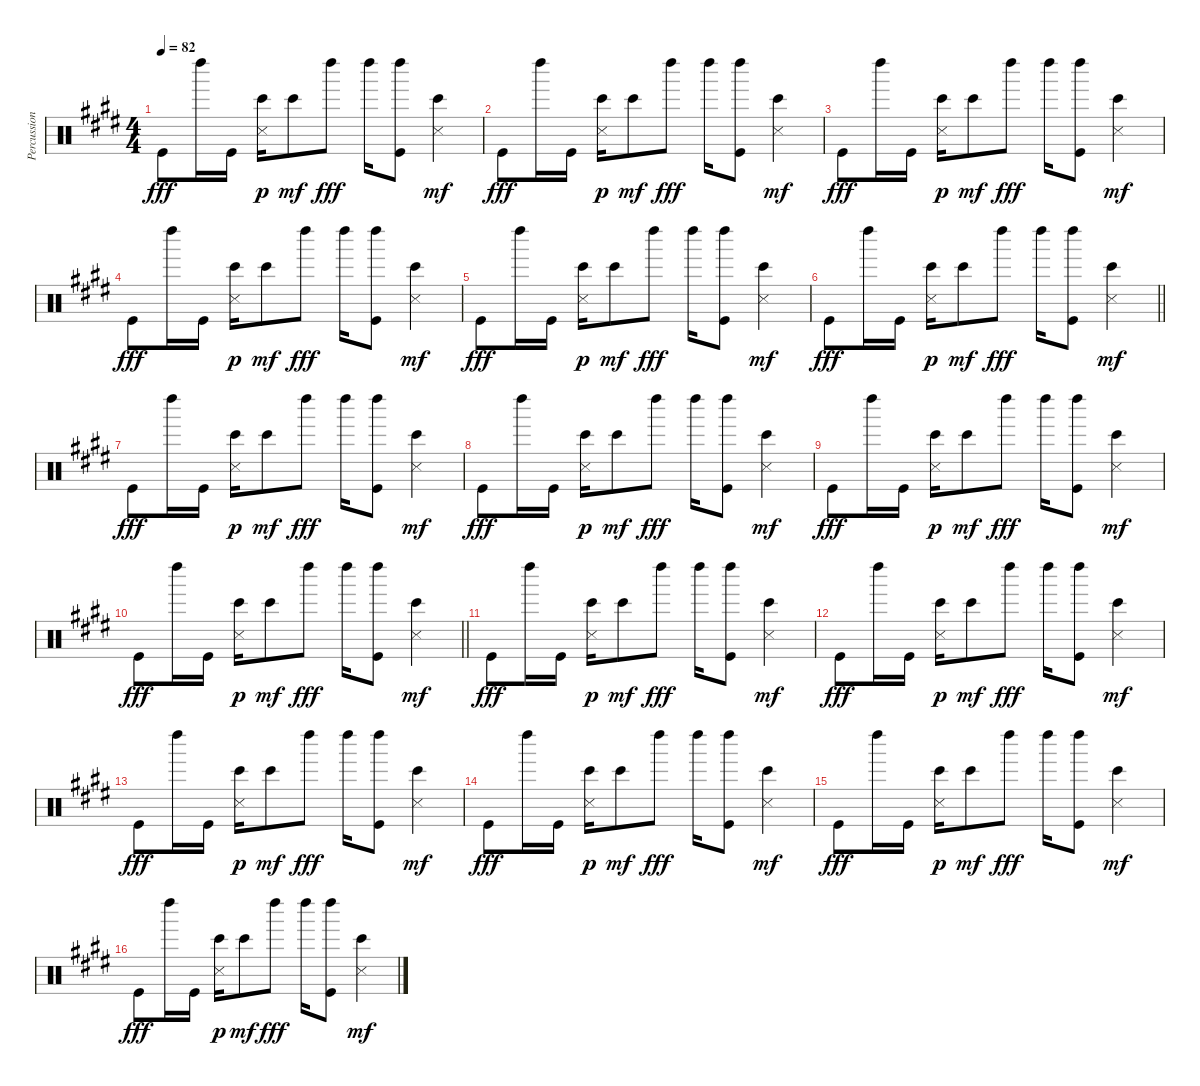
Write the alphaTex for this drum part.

\track ("Percussions" "Percussion") {instrument percussion}
\staff {score}
\articulation defaults
\ts (4 4)
\tempo 82
\clef neutral
\ks e "Kick (hit)".8{dy fff} "Left Maraca (hit)".16 "Kick (hit)".16
("Bongo High (hit)" "Metronome (hit)").16{dy p} "Bongo High (hit)".8{dy mf} "Left Maraca (hit)".8{dy fff} "Left Maraca (hit)".16 ("Left Maraca (hit)" "Kick (hit)").8 ("Bongo High (hit)" "Metronome (hit)").4{dy mf} |
"Kick (hit)".8{dy fff} "Left Maraca (hit)".16 "Kick (hit)".16 ("Bongo High (hit)" "Metronome (hit)").16{dy p} "Bongo High (hit)".8{dy mf} "Left Maraca (hit)".8{dy fff} "Left Maraca (hit)".16 ("Left Maraca (hit)" "Kick (hit)").8 ("Bongo High (hit)" "Metronome (hit)").4{dy mf} |
"Kick (hit)".8{dy fff} "Left Maraca (hit)".16 "Kick (hit)".16 ("Bongo High (hit)" "Metronome (hit)").16{dy p} "Bongo High (hit)".8{dy mf} "Left Maraca (hit)".8{dy fff} "Left Maraca (hit)".16 ("Left Maraca (hit)" "Kick (hit)").8 ("Bongo High (hit)" "Metronome (hit)").4{dy mf} |
"Kick (hit)".8{dy fff} "Left Maraca (hit)".16 "Kick (hit)".16 ("Bongo High (hit)" "Metronome (hit)").16{dy p} "Bongo High (hit)".8{dy mf} "Left Maraca (hit)".8{dy fff} "Left Maraca (hit)".16 ("Left Maraca (hit)" "Kick (hit)").8 ("Bongo High (hit)" "Metronome (hit)").4{dy mf} |
"Kick (hit)".8{dy fff} "Left Maraca (hit)".16 "Kick (hit)".16 ("Bongo High (hit)" "Metronome (hit)").16{dy p} "Bongo High (hit)".8{dy mf} "Left Maraca (hit)".8{dy fff} "Left Maraca (hit)".16 ("Left Maraca (hit)" "Kick (hit)").8 ("Bongo High (hit)" "Metronome (hit)").4{dy mf} |
\barLineRight lightlight "Kick (hit)".8{dy fff} "Left Maraca (hit)".16 "Kick (hit)".16
("Bongo High (hit)" "Metronome (hit)").16{dy p} "Bongo High (hit)".8{dy mf} "Left Maraca (hit)".8{dy fff} "Left Maraca (hit)".16 ("Left Maraca (hit)" "Kick (hit)").8 ("Bongo High (hit)" "Metronome (hit)").4{dy mf} |
"Kick (hit)".8{dy fff} "Left Maraca (hit)".16 "Kick (hit)".16 ("Bongo High (hit)" "Metronome (hit)").16{dy p} "Bongo High (hit)".8{dy mf} "Left Maraca (hit)".8{dy fff} "Left Maraca (hit)".16 ("Left Maraca (hit)" "Kick (hit)").8 ("Bongo High (hit)" "Metronome (hit)").4{dy mf} |
"Kick (hit)".8{dy fff} "Left Maraca (hit)".16 "Kick (hit)".16 ("Bongo High (hit)" "Metronome (hit)").16{dy p} "Bongo High (hit)".8{dy mf} "Left Maraca (hit)".8{dy fff} "Left Maraca (hit)".16 ("Left Maraca (hit)" "Kick (hit)").8 ("Bongo High (hit)" "Metronome (hit)").4{dy mf} |
"Kick (hit)".8{dy fff} "Left Maraca (hit)".16 "Kick (hit)".16 ("Bongo High (hit)" "Metronome (hit)").16{dy p} "Bongo High (hit)".8{dy mf} "Left Maraca (hit)".8{dy fff} "Left Maraca (hit)".16 ("Left Maraca (hit)" "Kick (hit)").8 ("Bongo High (hit)" "Metronome (hit)").4{dy mf} |
\barLineRight lightlight "Kick (hit)".8{dy fff} "Left Maraca (hit)".16 "Kick (hit)".16
("Bongo High (hit)" "Metronome (hit)").16{dy p} "Bongo High (hit)".8{dy mf} "Left Maraca (hit)".8{dy fff} "Left Maraca (hit)".16 ("Left Maraca (hit)" "Kick (hit)").8 ("Bongo High (hit)" "Metronome (hit)").4{dy mf} |
"Kick (hit)".8{dy fff} "Left Maraca (hit)".16 "Kick (hit)".16 ("Bongo High (hit)" "Metronome (hit)").16{dy p} "Bongo High (hit)".8{dy mf} "Left Maraca (hit)".8{dy fff} "Left Maraca (hit)".16 ("Left Maraca (hit)" "Kick (hit)").8 ("Bongo High (hit)" "Metronome (hit)").4{dy mf} |
"Kick (hit)".8{dy fff} "Left Maraca (hit)".16 "Kick (hit)".16 ("Bongo High (hit)" "Metronome (hit)").16{dy p} "Bongo High (hit)".8{dy mf} "Left Maraca (hit)".8{dy fff} "Left Maraca (hit)".16 ("Left Maraca (hit)" "Kick (hit)").8 ("Bongo High (hit)" "Metronome (hit)").4{dy mf} |
"Kick (hit)".8{dy fff} "Left Maraca (hit)".16 "Kick (hit)".16 ("Bongo High (hit)" "Metronome (hit)").16{dy p} "Bongo High (hit)".8{dy mf} "Left Maraca (hit)".8{dy fff} "Left Maraca (hit)".16 ("Left Maraca (hit)" "Kick (hit)").8 ("Bongo High (hit)" "Metronome (hit)").4{dy mf} |
"Kick (hit)".8{dy fff} "Left Maraca (hit)".16 "Kick (hit)".16 ("Bongo High (hit)" "Metronome (hit)").16{dy p} "Bongo High (hit)".8{dy mf} "Left Maraca (hit)".8{dy fff} "Left Maraca (hit)".16 ("Left Maraca (hit)" "Kick (hit)").8 ("Bongo High (hit)" "Metronome (hit)").4{dy mf} |
"Kick (hit)".8{dy fff} "Left Maraca (hit)".16 "Kick (hit)".16 ("Bongo High (hit)" "Metronome (hit)").16{dy p} "Bongo High (hit)".8{dy mf} "Left Maraca (hit)".8{dy fff} "Left Maraca (hit)".16 ("Left Maraca (hit)" "Kick (hit)").8 ("Bongo High (hit)" "Metronome (hit)").4{dy mf} |
"Kick (hit)".8{dy fff} "Left Maraca (hit)".16 "Kick (hit)".16 ("Bongo High (hit)" "Metronome (hit)").16{dy p} "Bongo High (hit)".8{dy mf} "Left Maraca (hit)".8{dy fff} "Left Maraca (hit)".16 ("Left Maraca (hit)" "Kick (hit)").8 ("Bongo High (hit)" "Metronome (hit)").4{dy mf}
